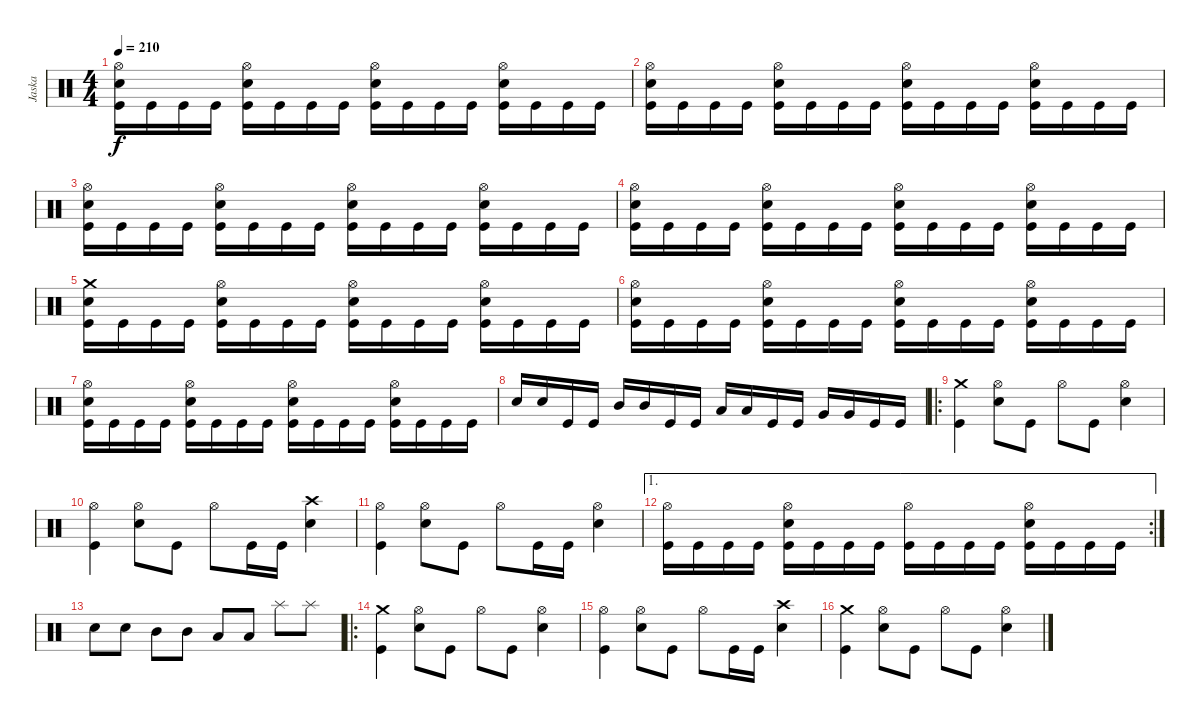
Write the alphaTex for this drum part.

\track ("Jaska" "Jaska") {instrument percussion}
\staff {score}
\articulation defaults
\ts (4 4)
\tempo 210
\clef neutral
\ks c
("Hi-Hat (open)" "Electric Snare (hit)" "Kick (hit)").16{dy f} "Kick (hit)".16 "Kick (hit)".16 "Kick (hit)".16 ("Hi-Hat (open)" "Electric Snare (hit)" "Kick (hit)").16 "Kick (hit)".16 "Kick (hit)".16 "Kick (hit)".16 ("Hi-Hat (open)" "Electric Snare (hit)" "Kick (hit)").16 "Kick (hit)".16 "Kick (hit)".16 "Kick (hit)".16 ("Hi-Hat (open)" "Electric Snare (hit)" "Kick (hit)").16 "Kick (hit)".16 "Kick (hit)".16 "Kick (hit)".16 |
("Hi-Hat (open)" "Electric Snare (hit)" "Kick (hit)").16 "Kick (hit)".16 "Kick (hit)".16 "Kick (hit)".16 ("Hi-Hat (open)" "Electric Snare (hit)" "Kick (hit)").16 "Kick (hit)".16 "Kick (hit)".16 "Kick (hit)".16 ("Hi-Hat (open)" "Electric Snare (hit)" "Kick (hit)").16 "Kick (hit)".16 "Kick (hit)".16 "Kick (hit)".16 ("Hi-Hat (open)" "Electric Snare (hit)" "Kick (hit)").16 "Kick (hit)".16 "Kick (hit)".16 "Kick (hit)".16 |
("Hi-Hat (open)" "Electric Snare (hit)" "Kick (hit)").16 "Kick (hit)".16 "Kick (hit)".16 "Kick (hit)".16 ("Hi-Hat (open)" "Electric Snare (hit)" "Kick (hit)").16 "Kick (hit)".16 "Kick (hit)".16 "Kick (hit)".16 ("Hi-Hat (open)" "Electric Snare (hit)" "Kick (hit)").16 "Kick (hit)".16 "Kick (hit)".16 "Kick (hit)".16 ("Hi-Hat (open)" "Electric Snare (hit)" "Kick (hit)").16 "Kick (hit)".16 "Kick (hit)".16 "Kick (hit)".16 |
("Hi-Hat (open)" "Electric Snare (hit)" "Kick (hit)").16 "Kick (hit)".16 "Kick (hit)".16 "Kick (hit)".16 ("Hi-Hat (open)" "Electric Snare (hit)" "Kick (hit)").16 "Kick (hit)".16 "Kick (hit)".16 "Kick (hit)".16 ("Hi-Hat (open)" "Electric Snare (hit)" "Kick (hit)").16 "Kick (hit)".16 "Kick (hit)".16 "Kick (hit)".16 ("Hi-Hat (open)" "Electric Snare (hit)" "Kick (hit)").16 "Kick (hit)".16 "Kick (hit)".16 "Kick (hit)".16 |
("Crash medium (hit)" "Electric Snare (hit)" "Kick (hit)").16 "Kick (hit)".16 "Kick (hit)".16 "Kick (hit)".16 ("Hi-Hat (open)" "Electric Snare (hit)" "Kick (hit)").16 "Kick (hit)".16 "Kick (hit)".16 "Kick (hit)".16 ("Hi-Hat (open)" "Electric Snare (hit)" "Kick (hit)").16 "Kick (hit)".16 "Kick (hit)".16 "Kick (hit)".16 ("Hi-Hat (open)" "Electric Snare (hit)" "Kick (hit)").16 "Kick (hit)".16 "Kick (hit)".16 "Kick (hit)".16 |
("Hi-Hat (open)" "Electric Snare (hit)" "Kick (hit)").16 "Kick (hit)".16 "Kick (hit)".16 "Kick (hit)".16 ("Hi-Hat (open)" "Electric Snare (hit)" "Kick (hit)").16 "Kick (hit)".16 "Kick (hit)".16 "Kick (hit)".16 ("Hi-Hat (open)" "Electric Snare (hit)" "Kick (hit)").16 "Kick (hit)".16 "Kick (hit)".16 "Kick (hit)".16 ("Hi-Hat (open)" "Electric Snare (hit)" "Kick (hit)").16 "Kick (hit)".16 "Kick (hit)".16 "Kick (hit)".16 |
("Hi-Hat (open)" "Electric Snare (hit)" "Kick (hit)").16 "Kick (hit)".16 "Kick (hit)".16 "Kick (hit)".16 ("Hi-Hat (open)" "Electric Snare (hit)" "Kick (hit)").16 "Kick (hit)".16 "Kick (hit)".16 "Kick (hit)".16 ("Hi-Hat (open)" "Electric Snare (hit)" "Kick (hit)").16 "Kick (hit)".16 "Kick (hit)".16 "Kick (hit)".16 ("Hi-Hat (open)" "Electric Snare (hit)" "Kick (hit)").16 "Kick (hit)".16 "Kick (hit)".16 "Kick (hit)".16 |
"Electric Snare (hit)".16 "Electric Snare (hit)".16 "Kick (hit)".16 "Kick (hit)".16 "Mid Tom (hit)".16 "Mid Tom (hit)".16 "Kick (hit)".16 "Kick (hit)".16 "Low Tom (hit)".16 "Low Tom (hit)".16 "Kick (hit)".16 "Kick (hit)".16 "Very Low Tom (hit)".16 "Very Low Tom (hit)".16 "Kick (hit)".16 "Kick (hit)".16 |
\ro
("Crash medium (hit)" "Kick (hit)").4 ("Hi-Hat (open)" "Electric Snare (hit)").8 "Kick (hit)".8 "Hi-Hat (open)".8 "Kick (hit)".8 ("Hi-Hat (open)" "Electric Snare (hit)").4 |
("Hi-Hat (open)" "Kick (hit)").4 ("Hi-Hat (open)" "Electric Snare (hit)").8 "Kick (hit)".8 "Hi-Hat (open)".8 "Kick (hit)".16 "Kick (hit)".16 ("Crash high (hit)" "Electric Snare (hit)").4 |
("Hi-Hat (open)" "Kick (hit)").4 ("Hi-Hat (open)" "Electric Snare (hit)").8 "Kick (hit)".8 "Hi-Hat (open)".8 "Kick (hit)".16 "Kick (hit)".16 ("Hi-Hat (open)" "Electric Snare (hit)").4 |
\ae 1
\rc 2
("Hi-Hat (open)" "Kick (hit)").16 "Kick (hit)".16 "Kick (hit)".16 "Kick (hit)".16 ("Hi-Hat (open)" "Electric Snare (hit)" "Kick (hit)").16 "Kick (hit)".16 "Kick (hit)".16 "Kick (hit)".16 ("Hi-Hat (open)" "Kick (hit)").16 "Kick (hit)".16 "Kick (hit)".16 "Kick (hit)".16 ("Hi-Hat (open)" "Electric Snare (hit)" "Kick (hit)").16 "Kick (hit)".16 "Kick (hit)".16 "Kick (hit)".16 |
"Electric Snare (hit)".8 "Electric Snare (hit)".8 "Mid Tom (hit)".8 "Mid Tom (hit)".8 "Low Tom (hit)".8 "Low Tom (hit)".8 "Splash (hit)".8 "Splash (hit)".8 |
\ro
("Crash medium (hit)" "Kick (hit)").4 ("Hi-Hat (open)" "Electric Snare (hit)").8 "Kick (hit)".8 "Hi-Hat (open)".8 "Kick (hit)".8 ("Hi-Hat (open)" "Electric Snare (hit)").4 |
("Hi-Hat (open)" "Kick (hit)").4 ("Hi-Hat (open)" "Electric Snare (hit)").8 "Kick (hit)".8 "Hi-Hat (open)".8 "Kick (hit)".16 "Kick (hit)".16 ("Crash high (hit)" "Electric Snare (hit)").4 |
("Crash medium (hit)" "Kick (hit)").4 ("Hi-Hat (open)" "Electric Snare (hit)").8 "Kick (hit)".8 "Hi-Hat (open)".8 "Kick (hit)".8 ("Hi-Hat (open)" "Electric Snare (hit)").4
